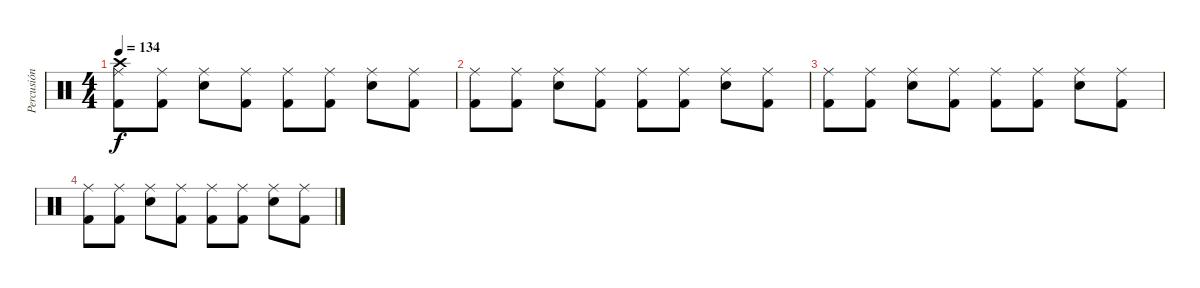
\track ("Percusión" "Percusión") {instrument percussion}
\staff {score}
\articulation defaults
\ts (4 4)
\tempo 134
\clef neutral
\ks c
("Crash high (hit)" "Ride (middle)" "Kick (hit) 2").8{dy f} ("Ride (middle)" "Kick (hit) 2").8 ("Ride (middle)" "Snare (hit) 2").8 ("Ride (middle)" "Kick (hit) 2").8 ("Ride (middle)" "Kick (hit) 2").8 ("Ride (middle)" "Kick (hit) 2").8 ("Ride (middle)" "Snare (hit) 2").8 ("Ride (middle)" "Kick (hit) 2").8 |
("Ride (middle)" "Kick (hit) 2").8 ("Ride (middle)" "Kick (hit) 2").8 ("Ride (middle)" "Snare (hit) 2").8 ("Ride (middle)" "Kick (hit) 2").8 ("Ride (middle)" "Kick (hit) 2").8 ("Ride (middle)" "Kick (hit) 2").8 ("Ride (middle)" "Snare (hit) 2").8 ("Ride (middle)" "Kick (hit) 2").8 |
("Ride (middle)" "Kick (hit) 2").8 ("Ride (middle)" "Kick (hit) 2").8 ("Ride (middle)" "Snare (hit) 2").8 ("Ride (middle)" "Kick (hit) 2").8 ("Ride (middle)" "Kick (hit) 2").8 ("Ride (middle)" "Kick (hit) 2").8 ("Ride (middle)" "Snare (hit) 2").8 ("Ride (middle)" "Kick (hit) 2").8 |
("Ride (middle)" "Kick (hit) 2").8 ("Ride (middle)" "Kick (hit) 2").8 ("Ride (middle)" "Snare (hit) 2").8 ("Ride (middle)" "Kick (hit) 2").8 ("Ride (middle)" "Kick (hit) 2").8 ("Ride (middle)" "Kick (hit) 2").8 ("Ride (middle)" "Snare (hit) 2").8 ("Ride (middle)" "Kick (hit) 2").8
